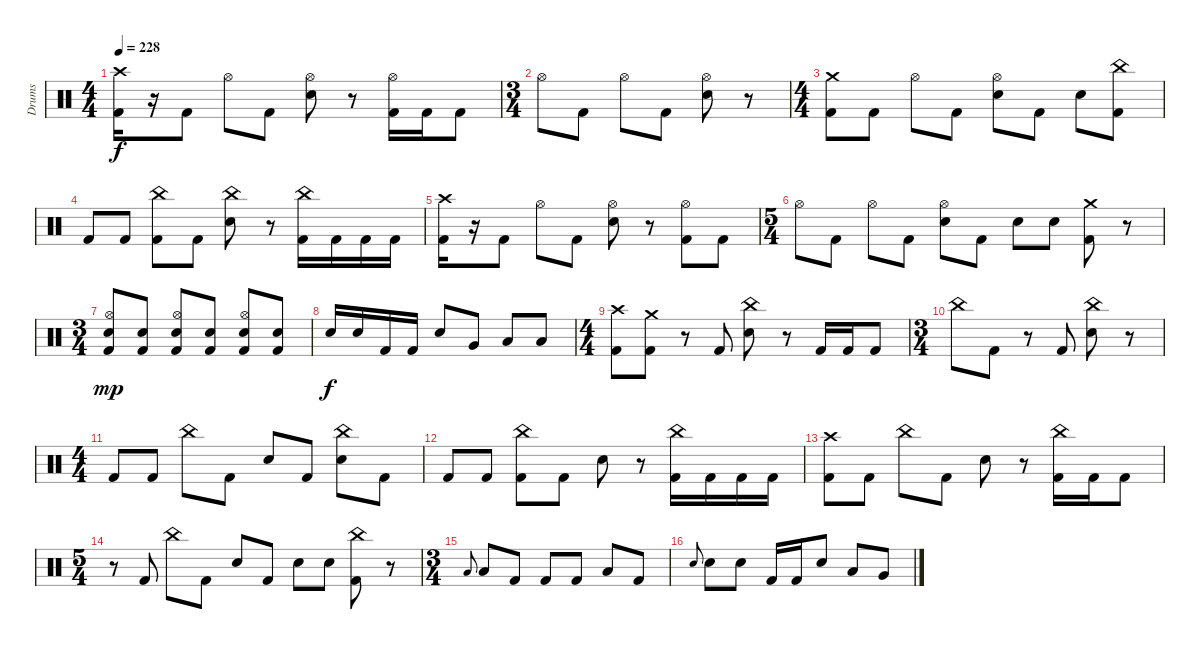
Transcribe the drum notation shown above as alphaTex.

\track ("Drums" "Drums") {instrument percussion}
\staff {score}
\articulation defaults
\ts (4 4)
\tempo 228
\clef neutral
\ks c
("Crash high (hit)" "Kick (hit) 2").16{dy f} r.16 "Kick (hit) 2".8 "Hi-Hat (open)".8 "Kick (hit) 2".8 ("Hi-Hat (open)" "Electric Snare (hit)").8 r.8 ("Hi-Hat (open)" "Kick (hit) 2").16 "Kick (hit) 2".16 "Kick (hit) 2".8 |
\ts (3 4)
"Hi-Hat (open)".8 "Kick (hit) 2".8 "Hi-Hat (open)".8 "Kick (hit) 2".8 ("Hi-Hat (open)" "Electric Snare (hit)").8 r.8 |
\ts (4 4)
("Crash medium (hit)" "Kick (hit) 2").8 "Kick (hit) 2".8 "Hi-Hat (open)".8 "Kick (hit) 2".8 ("Hi-Hat (open)" "Electric Snare (hit)").8 "Kick (hit) 2".8 "Electric Snare (hit)".8 ("China (hit)" "Kick (hit) 2").8 |
"Kick (hit) 2".8 "Kick (hit) 2".8 ("China (hit)" "Kick (hit) 2").8 "Kick (hit) 2".8 ("China (hit)" "Electric Snare (hit)").8 r.8 ("China (hit)" "Kick (hit) 2").16 "Kick (hit) 2".16 "Kick (hit) 2".16 "Kick (hit) 2".16 |
("Crash high (hit)" "Kick (hit) 2").16 r.16 "Kick (hit) 2".8 "Hi-Hat (open)".8 "Kick (hit) 2".8 ("Hi-Hat (open)" "Electric Snare (hit)").8 r.8 ("Hi-Hat (open)" "Kick (hit) 2").8 "Kick (hit) 2".8 |
\ts (5 4)
"Hi-Hat (open)".8 "Kick (hit) 2".8 "Hi-Hat (open)".8 "Kick (hit) 2".8 ("Hi-Hat (open)" "Electric Snare (hit)").8 "Kick (hit) 2".8 "Electric Snare (hit)".8 "Electric Snare (hit)".8 ("Crash medium (hit)" "Kick (hit) 2").8 r.8 |
\ts (3 4)
("Hi-Hat (open)" "Electric Snare (hit)" "Kick (hit) 2").8{dy mp} ("Electric Snare (hit)" "Kick (hit) 2").8 ("Hi-Hat (open)" "Electric Snare (hit)" "Kick (hit) 2").8 ("Electric Snare (hit)" "Kick (hit) 2").8 ("Hi-Hat (open)" "Electric Snare (hit)" "Kick (hit) 2").8 ("Electric Snare (hit)" "Kick (hit) 2").8 |
"Electric Snare (hit)".16{dy f} "Electric Snare (hit)".16 "Kick (hit) 2".16 "Kick (hit) 2".16 "Electric Snare (hit)".8 "Very Low Tom (hit)".8 "Low Floor Tom (hit)".8 "Low Floor Tom (hit)".8 |
\ts (4 4)
("Crash high (hit)" "Kick (hit) 2").8 ("Crash medium (hit)" "Kick (hit) 2").8 r.8 "Kick (hit) 2".8 ("China (hit)" "Electric Snare (hit)").8 r.8 "Kick (hit) 2".16 "Kick (hit) 2".16 "Kick (hit) 2".8 |
\ts (3 4)
"China (hit)".8 "Kick (hit) 2".8 r.8 "Kick (hit) 2".8 ("China (hit)" "Electric Snare (hit)").8 r.8 |
\ts (4 4)
"Kick (hit) 2".8 "Kick (hit) 2".8 "China (hit)".8 "Kick (hit) 2".8 "Electric Snare (hit)".8 "Kick (hit) 2".8 ("China (hit)" "Electric Snare (hit)").8 "Kick (hit) 2".8 |
"Kick (hit) 2".8 "Kick (hit) 2".8 ("China (hit)" "Kick (hit) 2").8 "Kick (hit) 2".8 "Electric Snare (hit)".8 r.8 ("China (hit)" "Kick (hit) 2").16 "Kick (hit) 2".16 "Kick (hit) 2".16 "Kick (hit) 2".16 |
("Crash high (hit)" "Kick (hit) 2").8 "Kick (hit) 2".8 "China (hit)".8 "Kick (hit) 2".8 "Electric Snare (hit)".8 r.8 ("China (hit)" "Kick (hit) 2").16 "Kick (hit) 2".16 "Kick (hit) 2".8 |
\ts (5 4)
r.8 "Kick (hit) 2".8 "China (hit)".8 "Kick (hit) 2".8 "Electric Snare (hit)".8 "Kick (hit) 2".8 "Electric Snare (hit)".8 "Electric Snare (hit)".8 ("China (hit)" "Kick (hit) 2").8 r.8 |
\ts (3 4)
"Low Floor Tom (hit)".8{gr onbeat} "Low Floor Tom (hit)".8 "Kick (hit) 2".8 "Kick (hit) 2".8 "Kick (hit) 2".8 "Low Tom (hit)".8 "Kick (hit) 2".8 |
"Electric Snare (hit)".8{gr onbeat} "Electric Snare (hit)".8 "Electric Snare (hit)".8 "Kick (hit) 2".16 "Kick (hit) 2".16 "Electric Snare (hit)".8 "Low Tom (hit)".8 "Very Low Tom (hit)".8
